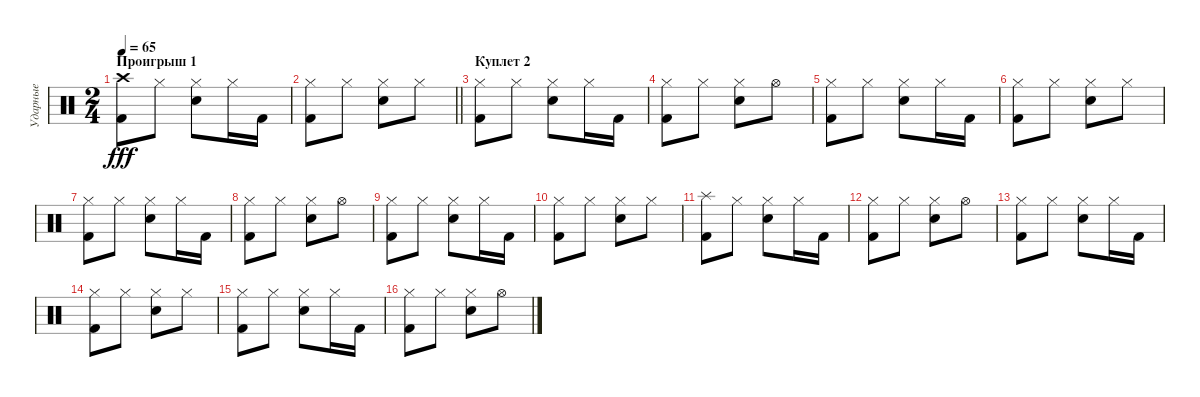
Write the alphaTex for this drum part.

\track ("Ударные" "Ударные") {instrument percussion}
\staff
\articulation defaults
\ts (2 4)
\section ("" "Проигрыш 1")
\tempo 65
\clef neutral
\ks c
("Kick (hit) 2" "Crash high (hit)").8{dy fff} "Hi-Hat (closed)".8 ("Snare (hit) 2" "Hi-Hat (closed)").8 "Hi-Hat (closed)".16 "Kick (hit) 2".16 |
\barLineRight lightlight
("Kick (hit) 2" "Hi-Hat (closed)").8 "Hi-Hat (closed)".8 ("Snare (hit) 2" "Hi-Hat (closed)").8 "Hi-Hat (closed)".8 |
\section ("" "Куплет 2")
("Kick (hit) 2" "Hi-Hat (closed)").8 "Hi-Hat (closed)".8 ("Snare (hit) 2" "Hi-Hat (closed)").8 "Hi-Hat (closed)".16 "Kick (hit) 2".16 |
("Kick (hit) 2" "Hi-Hat (closed)").8 "Hi-Hat (closed)".8 ("Snare (hit) 2" "Hi-Hat (closed)").8 "Hi-Hat (open)".8 |
("Kick (hit) 2" "Hi-Hat (closed)").8 "Hi-Hat (closed)".8 ("Snare (hit) 2" "Hi-Hat (closed)").8 "Hi-Hat (closed)".16 "Kick (hit) 2".16 |
("Kick (hit) 2" "Hi-Hat (closed)").8 "Hi-Hat (closed)".8 ("Snare (hit) 2" "Hi-Hat (closed)").8 "Hi-Hat (closed)".8 |
("Kick (hit) 2" "Hi-Hat (closed)").8 "Hi-Hat (closed)".8 ("Snare (hit) 2" "Hi-Hat (closed)").8 "Hi-Hat (closed)".16 "Kick (hit) 2".16 |
("Kick (hit) 2" "Hi-Hat (closed)").8 "Hi-Hat (closed)".8 ("Snare (hit) 2" "Hi-Hat (closed)").8 "Hi-Hat (open)".8 |
("Kick (hit) 2" "Hi-Hat (closed)").8 "Hi-Hat (closed)".8 ("Snare (hit) 2" "Hi-Hat (closed)").8 "Hi-Hat (closed)".16 "Kick (hit) 2".16 |
("Kick (hit) 2" "Hi-Hat (closed)").8 "Hi-Hat (closed)".8 ("Snare (hit) 2" "Hi-Hat (closed)").8 "Hi-Hat (closed)".8 |
("Kick (hit) 2" "Splash (hit)").8 "Hi-Hat (closed)".8 ("Snare (hit) 2" "Hi-Hat (closed)").8 "Hi-Hat (closed)".16 "Kick (hit) 2".16 |
("Kick (hit) 2" "Hi-Hat (closed)").8 "Hi-Hat (closed)".8 ("Snare (hit) 2" "Hi-Hat (closed)").8 "Hi-Hat (open)".8 |
("Kick (hit) 2" "Hi-Hat (closed)").8 "Hi-Hat (closed)".8 ("Snare (hit) 2" "Hi-Hat (closed)").8 "Hi-Hat (closed)".16 "Kick (hit) 2".16 |
("Kick (hit) 2" "Hi-Hat (closed)").8 "Hi-Hat (closed)".8 ("Snare (hit) 2" "Hi-Hat (closed)").8 "Hi-Hat (closed)".8 |
("Kick (hit) 2" "Hi-Hat (closed)").8 "Hi-Hat (closed)".8 ("Snare (hit) 2" "Hi-Hat (closed)").8 "Hi-Hat (closed)".16 "Kick (hit) 2".16 |
("Kick (hit) 2" "Hi-Hat (closed)").8 "Hi-Hat (closed)".8 ("Snare (hit) 2" "Hi-Hat (closed)").8 "Hi-Hat (open)".8
